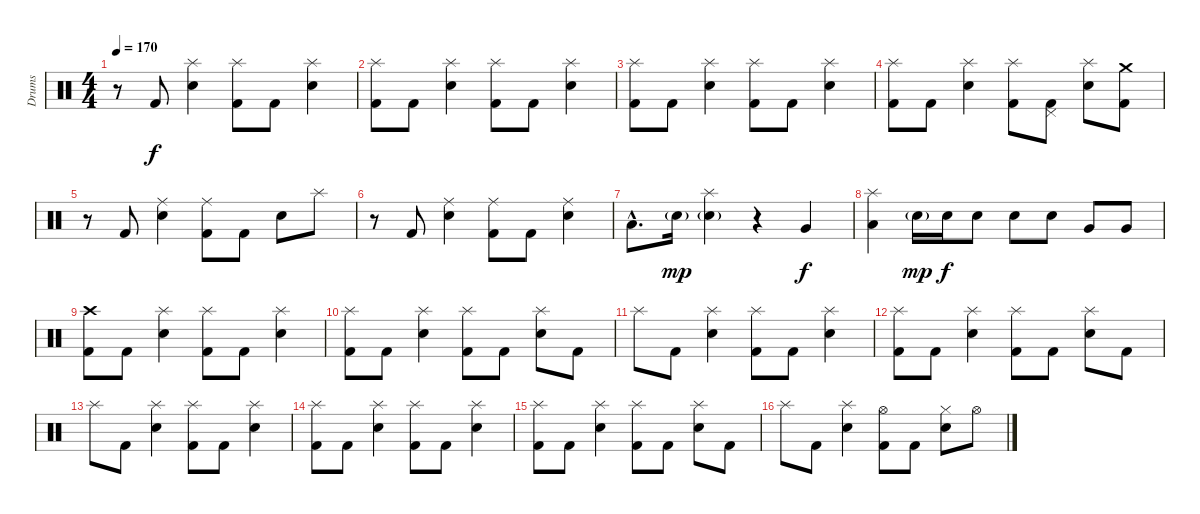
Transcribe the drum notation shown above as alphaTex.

\track ("Drums" "Drums") {instrument percussion}
\staff {score}
\articulation defaults
\ts (4 4)
\tempo 170
\clef neutral
\ks c
r.8{dy f} "Kick (hit) 2".8 ("Splash (hit)" "Electric Snare (hit)").4 ("Splash (hit)" "Kick (hit) 2").8 "Kick (hit) 2".8 ("Splash (hit)" "Electric Snare (hit)").4 |
("Splash (hit)" "Kick (hit) 2").8 "Kick (hit) 2".8 ("Splash (hit)" "Electric Snare (hit)").4 ("Splash (hit)" "Kick (hit) 2").8 "Kick (hit) 2".8 ("Splash (hit)" "Electric Snare (hit)").4 |
("Splash (hit)" "Kick (hit) 2").8 "Kick (hit) 2".8 ("Splash (hit)" "Electric Snare (hit)").4 ("Splash (hit)" "Kick (hit) 2").8 "Kick (hit) 2".8 ("Splash (hit)" "Electric Snare (hit)").4 |
("Splash (hit)" "Kick (hit) 2").8 "Kick (hit) 2".8 ("Splash (hit)" "Electric Snare (hit)").4 ("Splash (hit)" "Kick (hit) 2").8 ("Pedal Hi-Hat (hit)" "Kick (hit) 2").8 ("Splash (hit)" "Electric Snare (hit)").8 ("Crash medium (hit)" "Kick (hit) 2").8 |
r.8 "Kick (hit) 2".8 ("Ride (middle)" "Electric Snare (hit)").4 ("Ride (middle)" "Kick (hit) 2").8 "Kick (hit) 2".8 "Electric Snare (hit)".8 "Splash (hit)".8 |
r.8 "Kick (hit) 2".8 ("Ride (middle)" "Electric Snare (hit)").4 ("Ride (middle)" "Kick (hit) 2").8 "Kick (hit) 2".8 ("Ride (middle)" "Electric Snare (hit)").4 |
"Low Floor Tom (hit)"{hac}.8{d} "Electric Snare (hit)"{g}.16{dy mp} ("Splash (hit)" "Electric Snare (hit)"{g}).4 r.4 "Very Low Tom (hit)".4{dy f} |
("Splash (hit)" "Low Tom (hit)").4 "Electric Snare (hit)"{g}.16{dy mp} "Electric Snare (hit)".16{dy f} "Electric Snare (hit)".8 "Electric Snare (hit)".8 "Electric Snare (hit)".8 "Very Low Tom (hit)".8 "Very Low Tom (hit)".8 |
("Crash high (hit)" "Kick (hit) 2").8 "Kick (hit) 2".8 ("Splash (hit)" "Electric Snare (hit)").4 ("Splash (hit)" "Kick (hit) 2").8 "Kick (hit) 2".8 ("Splash (hit)" "Electric Snare (hit)").4 |
("Splash (hit)" "Kick (hit) 2").8 "Kick (hit) 2".8 ("Splash (hit)" "Electric Snare (hit)").4 ("Splash (hit)" "Kick (hit) 2").8 "Kick (hit) 2".8 ("Splash (hit)" "Electric Snare (hit)").8 "Kick (hit) 2".8 |
"Splash (hit)".8 "Kick (hit) 2".8 ("Splash (hit)" "Electric Snare (hit)").4 ("Splash (hit)" "Kick (hit) 2").8 "Kick (hit) 2".8 ("Splash (hit)" "Electric Snare (hit)").4 |
("Splash (hit)" "Kick (hit) 2").8 "Kick (hit) 2".8 ("Splash (hit)" "Electric Snare (hit)").4 ("Splash (hit)" "Kick (hit) 2").8 "Kick (hit) 2".8 ("Splash (hit)" "Electric Snare (hit)").8 "Kick (hit) 2".8 |
"Splash (hit)".8 "Kick (hit) 2".8 ("Splash (hit)" "Electric Snare (hit)").4 ("Splash (hit)" "Kick (hit) 2").8 "Kick (hit) 2".8 ("Splash (hit)" "Electric Snare (hit)").4 |
("Splash (hit)" "Kick (hit) 2").8 "Kick (hit) 2".8 ("Splash (hit)" "Electric Snare (hit)").4 ("Splash (hit)" "Kick (hit) 2").8 "Kick (hit) 2".8 ("Splash (hit)" "Electric Snare (hit)").4 |
("Splash (hit)" "Kick (hit) 2").8 "Kick (hit) 2".8 ("Splash (hit)" "Electric Snare (hit)").4 ("Splash (hit)" "Kick (hit) 2").8 "Kick (hit) 2".8 ("Splash (hit)" "Electric Snare (hit)").8 "Kick (hit) 2".8 |
"Splash (hit)".8 "Kick (hit) 2".8 ("Splash (hit)" "Electric Snare (hit)").4 ("Hi-Hat (open)" "Kick (hit) 2").8 "Kick (hit) 2".8 ("Hi-Hat (closed)" "Electric Snare (hit)").8 "Hi-Hat (open)".8
